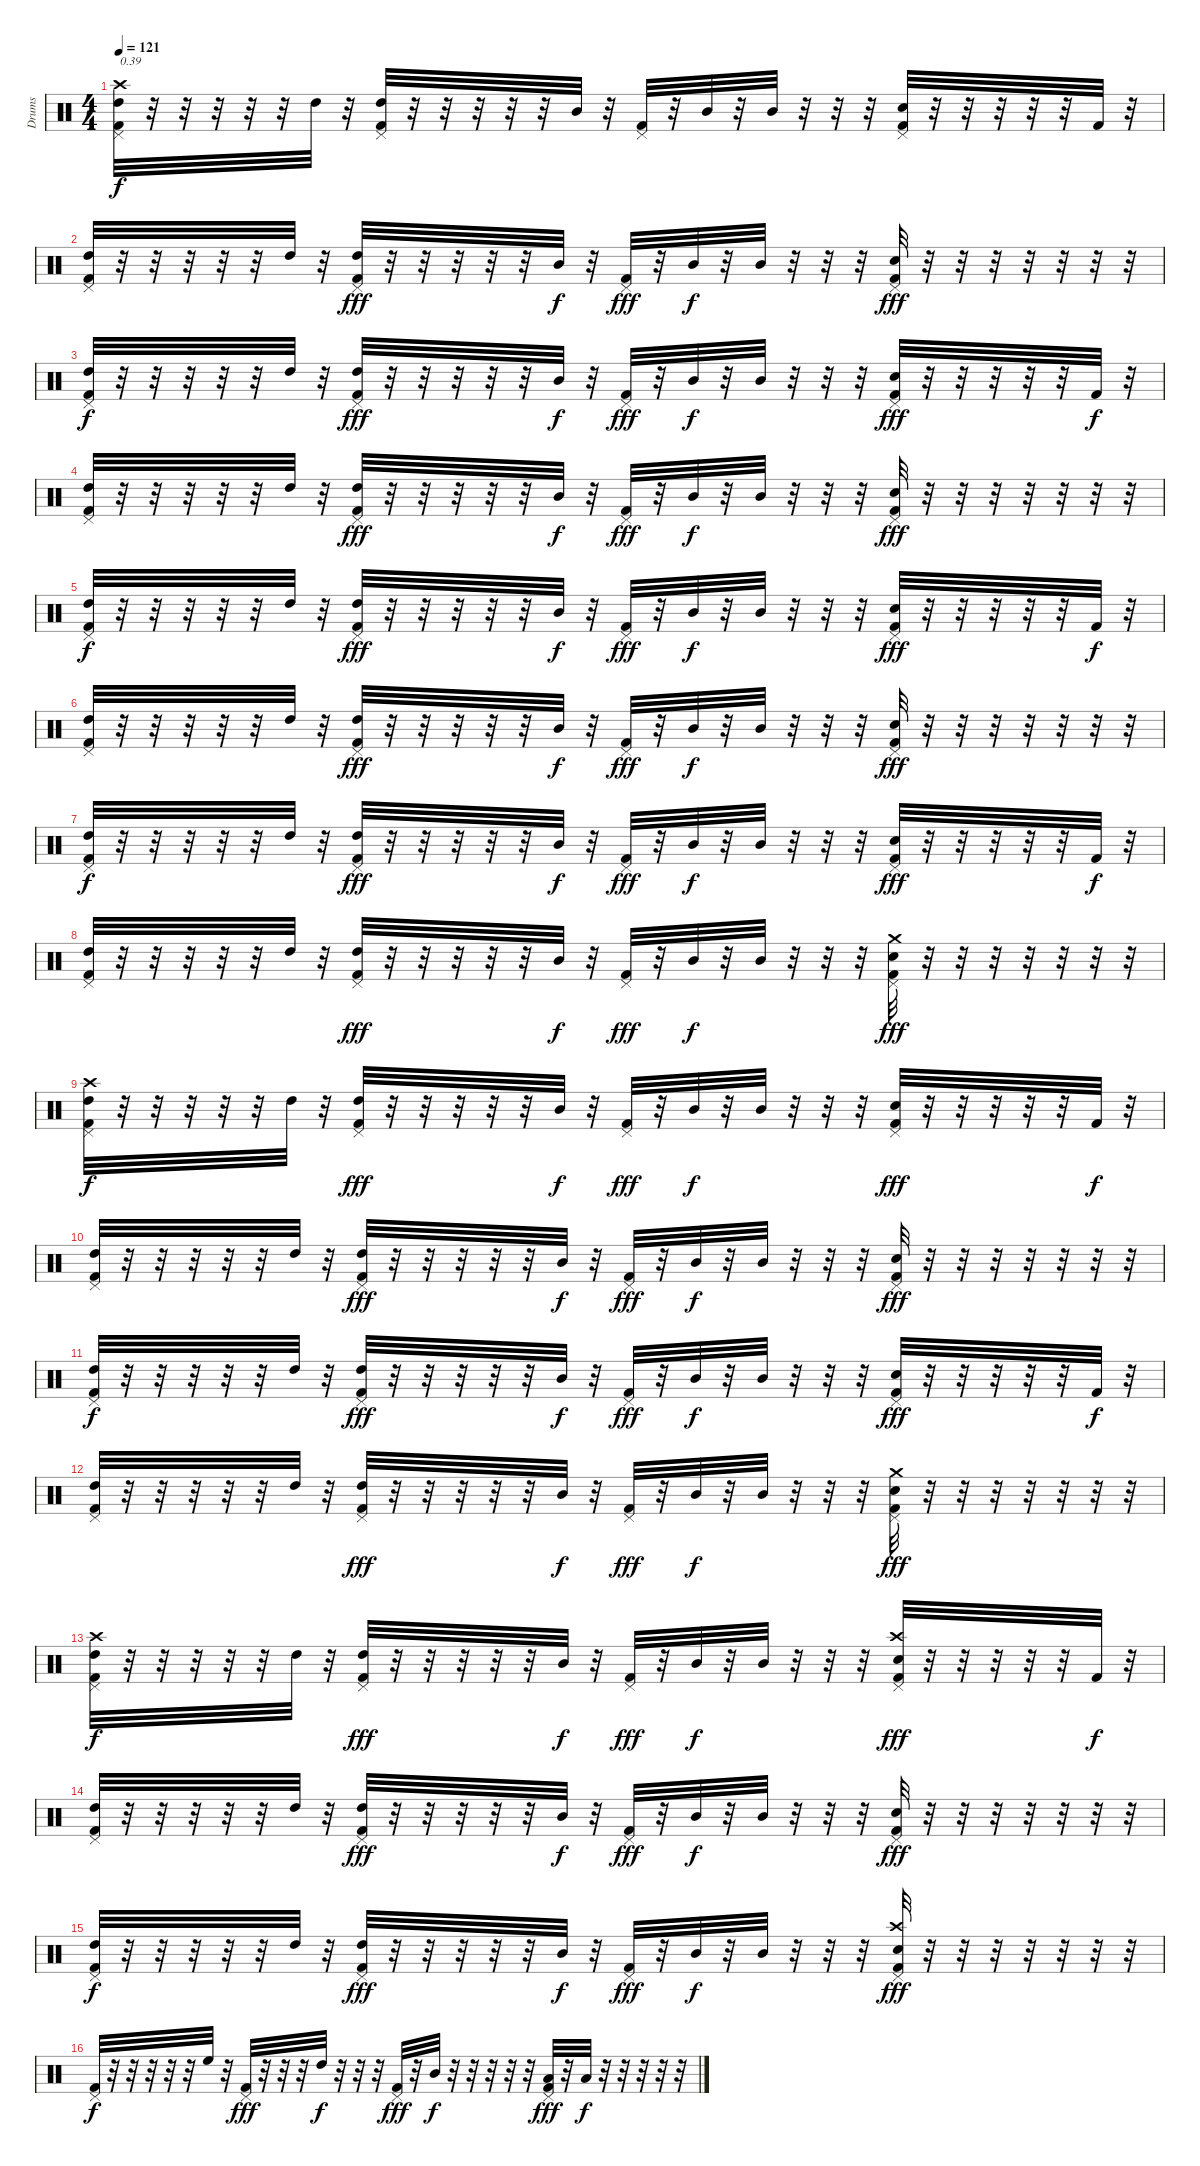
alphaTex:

\track ("Drums" "Drums") {instrument percussion}
\staff {score}
\articulation defaults
\ts (4 4)
\tempo 121
\clef neutral
\ks c
("Pedal Hi-Hat (hit)" "Kick (hit) 2" "High Tom (hit)" "Crash high (hit)").32{txt "0.39" dy f} r.32 r.32 r.32 r.32 r.32 "High Tom (hit)".32 r.32 ("Pedal Hi-Hat (hit)" "Kick (hit) 2" "High Tom (hit)").32 r.32 r.32 r.32 r.32 r.32 "Mid Tom (hit)".32 r.32 ("Pedal Hi-Hat (hit)" "Kick (hit) 2").32 r.32 "Mid Tom (hit)".32 r.32 "Mid Tom (hit)".32 r.32 r.32 r.32 ("Pedal Hi-Hat (hit)" "Kick (hit) 2" "Electric Snare (hit)").32 r.32 r.32 r.32 r.32 r.32 "Kick (hit) 2".32 r.32 |
("Pedal Hi-Hat (hit)" "Kick (hit) 2" "High Tom (hit)").32 r.32 r.32 r.32 r.32 r.32 "High Tom (hit)".32 r.32 ("Pedal Hi-Hat (hit)" "Kick (hit) 2" "High Tom (hit)").32{dy fff} r.32 r.32 r.32 r.32 r.32 "Mid Tom (hit)".32{dy f} r.32 ("Pedal Hi-Hat (hit)" "Kick (hit) 2").32{dy fff} r.32 "Mid Tom (hit)".32{dy f} r.32 "Mid Tom (hit)".32 r.32 r.32 r.32 ("Pedal Hi-Hat (hit)" "Kick (hit) 2" "Electric Snare (hit)").32{dy fff} r.32 r.32 r.32 r.32 r.32 r.32 r.32 |
("Pedal Hi-Hat (hit)" "Kick (hit) 2" "High Tom (hit)").32{dy f} r.32 r.32 r.32 r.32 r.32 "High Tom (hit)".32 r.32 ("Pedal Hi-Hat (hit)" "Kick (hit) 2" "High Tom (hit)").32{dy fff} r.32 r.32 r.32 r.32 r.32 "Mid Tom (hit)".32{dy f} r.32 ("Pedal Hi-Hat (hit)" "Kick (hit) 2").32{dy fff} r.32 "Mid Tom (hit)".32{dy f} r.32 "Mid Tom (hit)".32 r.32 r.32 r.32 ("Pedal Hi-Hat (hit)" "Kick (hit) 2" "Electric Snare (hit)").32{dy fff} r.32 r.32 r.32 r.32 r.32 "Kick (hit) 2".32{dy f} r.32 |
("Pedal Hi-Hat (hit)" "Kick (hit) 2" "High Tom (hit)").32 r.32 r.32 r.32 r.32 r.32 "High Tom (hit)".32 r.32 ("Pedal Hi-Hat (hit)" "Kick (hit) 2" "High Tom (hit)").32{dy fff} r.32 r.32 r.32 r.32 r.32 "Mid Tom (hit)".32{dy f} r.32 ("Pedal Hi-Hat (hit)" "Kick (hit) 2").32{dy fff} r.32 "Mid Tom (hit)".32{dy f} r.32 "Mid Tom (hit)".32 r.32 r.32 r.32 ("Pedal Hi-Hat (hit)" "Kick (hit) 2" "Electric Snare (hit)").32{dy fff} r.32 r.32 r.32 r.32 r.32 r.32 r.32 |
("Pedal Hi-Hat (hit)" "Kick (hit) 2" "High Tom (hit)").32{dy f} r.32 r.32 r.32 r.32 r.32 "High Tom (hit)".32 r.32 ("Pedal Hi-Hat (hit)" "Kick (hit) 2" "High Tom (hit)").32{dy fff} r.32 r.32 r.32 r.32 r.32 "Mid Tom (hit)".32{dy f} r.32 ("Pedal Hi-Hat (hit)" "Kick (hit) 2").32{dy fff} r.32 "Mid Tom (hit)".32{dy f} r.32 "Mid Tom (hit)".32 r.32 r.32 r.32 ("Pedal Hi-Hat (hit)" "Kick (hit) 2" "Electric Snare (hit)").32{dy fff} r.32 r.32 r.32 r.32 r.32 "Kick (hit) 2".32{dy f} r.32 |
("Pedal Hi-Hat (hit)" "Kick (hit) 2" "High Tom (hit)").32 r.32 r.32 r.32 r.32 r.32 "High Tom (hit)".32 r.32 ("Pedal Hi-Hat (hit)" "Kick (hit) 2" "High Tom (hit)").32{dy fff} r.32 r.32 r.32 r.32 r.32 "Mid Tom (hit)".32{dy f} r.32 ("Pedal Hi-Hat (hit)" "Kick (hit) 2").32{dy fff} r.32 "Mid Tom (hit)".32{dy f} r.32 "Mid Tom (hit)".32 r.32 r.32 r.32 ("Pedal Hi-Hat (hit)" "Kick (hit) 2" "Electric Snare (hit)").32{dy fff} r.32 r.32 r.32 r.32 r.32 r.32 r.32 |
("Pedal Hi-Hat (hit)" "Kick (hit) 2" "High Tom (hit)").32{dy f} r.32 r.32 r.32 r.32 r.32 "High Tom (hit)".32 r.32 ("Pedal Hi-Hat (hit)" "Kick (hit) 2" "High Tom (hit)").32{dy fff} r.32 r.32 r.32 r.32 r.32 "Mid Tom (hit)".32{dy f} r.32 ("Pedal Hi-Hat (hit)" "Kick (hit) 2").32{dy fff} r.32 "Mid Tom (hit)".32{dy f} r.32 "Mid Tom (hit)".32 r.32 r.32 r.32 ("Pedal Hi-Hat (hit)" "Kick (hit) 2" "Electric Snare (hit)").32{dy fff} r.32 r.32 r.32 r.32 r.32 "Kick (hit) 2".32{dy f} r.32 |
("Pedal Hi-Hat (hit)" "Kick (hit) 2" "High Tom (hit)").32 r.32 r.32 r.32 r.32 r.32 "High Tom (hit)".32 r.32 ("Pedal Hi-Hat (hit)" "Kick (hit) 2" "High Tom (hit)").32{dy fff} r.32 r.32 r.32 r.32 r.32 "Mid Tom (hit)".32{dy f} r.32 ("Pedal Hi-Hat (hit)" "Kick (hit) 2").32{dy fff} r.32 "Mid Tom (hit)".32{dy f} r.32 "Mid Tom (hit)".32 r.32 r.32 r.32 ("Pedal Hi-Hat (hit)" "Kick (hit) 2" "Crash medium (hit)" "Electric Snare (hit)").32{dy fff} r.32 r.32 r.32 r.32 r.32 r.32 r.32 |
("Pedal Hi-Hat (hit)" "Kick (hit) 2" "High Tom (hit)" "Crash high (hit)").32{dy f} r.32 r.32 r.32 r.32 r.32 "High Tom (hit)".32 r.32 ("Pedal Hi-Hat (hit)" "Kick (hit) 2" "High Tom (hit)").32{dy fff} r.32 r.32 r.32 r.32 r.32 "Mid Tom (hit)".32{dy f} r.32 ("Pedal Hi-Hat (hit)" "Kick (hit) 2").32{dy fff} r.32 "Mid Tom (hit)".32{dy f} r.32 "Mid Tom (hit)".32 r.32 r.32 r.32 ("Pedal Hi-Hat (hit)" "Kick (hit) 2" "Electric Snare (hit)").32{dy fff} r.32 r.32 r.32 r.32 r.32 "Kick (hit) 2".32{dy f} r.32 |
("Pedal Hi-Hat (hit)" "Kick (hit) 2" "High Tom (hit)").32 r.32 r.32 r.32 r.32 r.32 "High Tom (hit)".32 r.32 ("Pedal Hi-Hat (hit)" "Kick (hit) 2" "High Tom (hit)").32{dy fff} r.32 r.32 r.32 r.32 r.32 "Mid Tom (hit)".32{dy f} r.32 ("Pedal Hi-Hat (hit)" "Kick (hit) 2").32{dy fff} r.32 "Mid Tom (hit)".32{dy f} r.32 "Mid Tom (hit)".32 r.32 r.32 r.32 ("Pedal Hi-Hat (hit)" "Kick (hit) 2" "Electric Snare (hit)").32{dy fff} r.32 r.32 r.32 r.32 r.32 r.32 r.32 |
("Pedal Hi-Hat (hit)" "Kick (hit) 2" "High Tom (hit)").32{dy f} r.32 r.32 r.32 r.32 r.32 "High Tom (hit)".32 r.32 ("Pedal Hi-Hat (hit)" "Kick (hit) 2" "High Tom (hit)").32{dy fff} r.32 r.32 r.32 r.32 r.32 "Mid Tom (hit)".32{dy f} r.32 ("Pedal Hi-Hat (hit)" "Kick (hit) 2").32{dy fff} r.32 "Mid Tom (hit)".32{dy f} r.32 "Mid Tom (hit)".32 r.32 r.32 r.32 ("Pedal Hi-Hat (hit)" "Kick (hit) 2" "Electric Snare (hit)").32{dy fff} r.32 r.32 r.32 r.32 r.32 "Kick (hit) 2".32{dy f} r.32 |
("Pedal Hi-Hat (hit)" "Kick (hit) 2" "High Tom (hit)").32 r.32 r.32 r.32 r.32 r.32 "High Tom (hit)".32 r.32 ("Pedal Hi-Hat (hit)" "Kick (hit) 2" "High Tom (hit)").32{dy fff} r.32 r.32 r.32 r.32 r.32 "Mid Tom (hit)".32{dy f} r.32 ("Pedal Hi-Hat (hit)" "Kick (hit) 2").32{dy fff} r.32 "Mid Tom (hit)".32{dy f} r.32 "Mid Tom (hit)".32 r.32 r.32 r.32 ("Pedal Hi-Hat (hit)" "Kick (hit) 2" "Crash medium (hit)" "Electric Snare (hit)").32{dy fff} r.32 r.32 r.32 r.32 r.32 r.32 r.32 |
("Pedal Hi-Hat (hit)" "Kick (hit) 2" "High Tom (hit)" "Crash high (hit)").32{dy f} r.32 r.32 r.32 r.32 r.32 "High Tom (hit)".32 r.32 ("Pedal Hi-Hat (hit)" "Kick (hit) 2" "High Tom (hit)").32{dy fff} r.32 r.32 r.32 r.32 r.32 "Mid Tom (hit)".32{dy f} r.32 ("Pedal Hi-Hat (hit)" "Kick (hit) 2").32{dy fff} r.32 "Mid Tom (hit)".32{dy f} r.32 "Mid Tom (hit)".32 r.32 r.32 r.32 ("Pedal Hi-Hat (hit)" "Kick (hit) 2" "Crash high (hit)" "Electric Snare (hit)").32{dy fff} r.32 r.32 r.32 r.32 r.32 "Kick (hit) 2".32{dy f} r.32 |
("Pedal Hi-Hat (hit)" "Kick (hit) 2" "High Tom (hit)").32 r.32 r.32 r.32 r.32 r.32 "High Tom (hit)".32 r.32 ("Pedal Hi-Hat (hit)" "Kick (hit) 2" "High Tom (hit)").32{dy fff} r.32 r.32 r.32 r.32 r.32 "Mid Tom (hit)".32{dy f} r.32 ("Pedal Hi-Hat (hit)" "Kick (hit) 2").32{dy fff} r.32 "Mid Tom (hit)".32{dy f} r.32 "Mid Tom (hit)".32 r.32 r.32 r.32 ("Pedal Hi-Hat (hit)" "Kick (hit) 2" "Electric Snare (hit)").32{dy fff} r.32 r.32 r.32 r.32 r.32 r.32 r.32 |
("Pedal Hi-Hat (hit)" "Kick (hit) 2" "High Tom (hit)").32{dy f} r.32 r.32 r.32 r.32 r.32 "High Tom (hit)".32 r.32 ("Pedal Hi-Hat (hit)" "Kick (hit) 2" "High Tom (hit)").32{dy fff} r.32 r.32 r.32 r.32 r.32 "Mid Tom (hit)".32{dy f} r.32 ("Pedal Hi-Hat (hit)" "Kick (hit) 2").32{dy fff} r.32 "Mid Tom (hit)".32{dy f} r.32 "Mid Tom (hit)".32 r.32 r.32 r.32 ("Pedal Hi-Hat (hit)" "Kick (hit) 2" "Crash high (hit)" "Electric Snare (hit)").32{dy fff} r.32 r.32 r.32 r.32 r.32 r.32 r.32 |
("Pedal Hi-Hat (hit)" "Kick (hit) 2").32{dy f} r.32 r.32 r.32 r.32 r.32 "High Floor Tom (hit)".32 r.32 ("Pedal Hi-Hat (hit)" "Kick (hit) 2").32{dy fff} r.32 r.32 r.32 "High Tom (hit)".32{dy f} r.32 r.32 r.32 ("Pedal Hi-Hat (hit)" "Kick (hit) 2").32{dy fff} r.32 "Mid Tom (hit)".32{dy f} r.32 r.32 r.32 r.32 r.32 ("Pedal Hi-Hat (hit)" "Kick (hit) 2" "Low Tom (hit)").32{dy fff} r.32 "Low Tom (hit)".32{dy f} r.32 r.32 r.32 r.32 r.32
